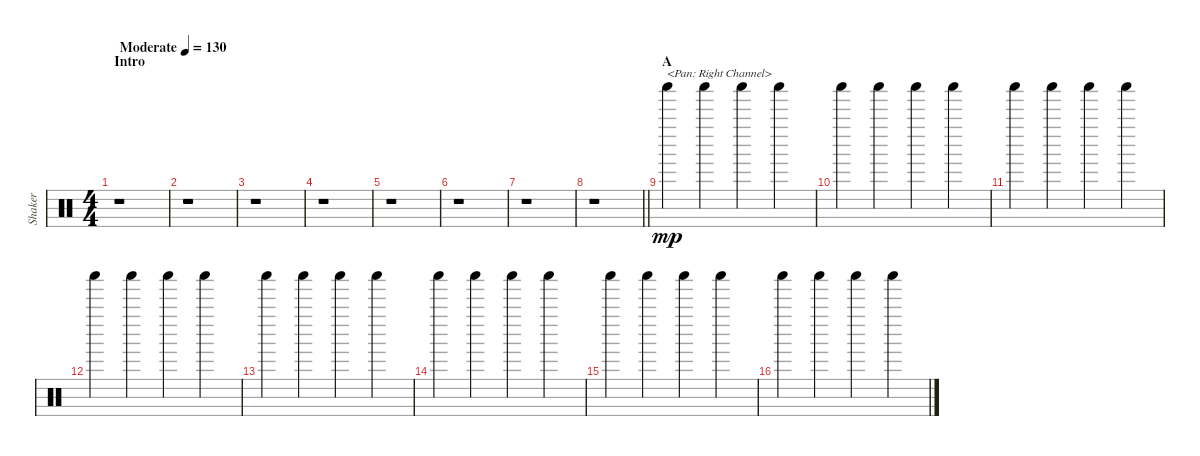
\track ("Shaker" "Shaker") {instrument percussion}
\staff {score}
\articulation defaults
\ts (4 4)
\section ("" "Intro")
\tempo (130 "Moderate")
\clef neutral
\ks c
r.1{dy mp} |
r.1 |
r.1 |
r.1 |
r.1 |
r.1 |
r.1 |
\barLineRight lightlight
r.1 |
\section ("" "A")
"Shaker (hit)".4{txt "<Pan: Right Channel>"} "Shaker (hit)".4 "Shaker (hit)".4 "Shaker (hit)".4 |
"Shaker (hit)".4 "Shaker (hit)".4 "Shaker (hit)".4 "Shaker (hit)".4 |
"Shaker (hit)".4 "Shaker (hit)".4 "Shaker (hit)".4 "Shaker (hit)".4 |
"Shaker (hit)".4 "Shaker (hit)".4 "Shaker (hit)".4 "Shaker (hit)".4 |
"Shaker (hit)".4 "Shaker (hit)".4 "Shaker (hit)".4 "Shaker (hit)".4 |
"Shaker (hit)".4 "Shaker (hit)".4 "Shaker (hit)".4 "Shaker (hit)".4 |
"Shaker (hit)".4 "Shaker (hit)".4 "Shaker (hit)".4 "Shaker (hit)".4 |
"Shaker (hit)".4 "Shaker (hit)".4 "Shaker (hit)".4 "Shaker (hit)".4
